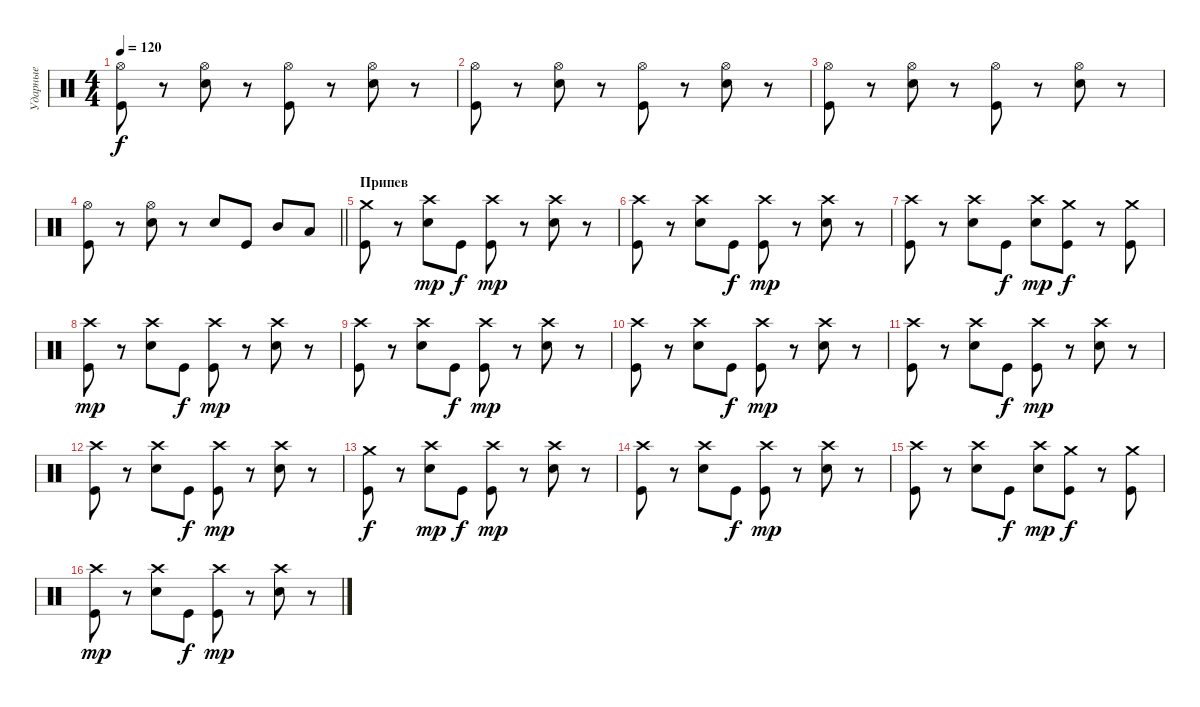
\track ("Ударные" "Ударные") {instrument percussion}
\staff {score}
\articulation defaults
\ts (4 4)
\tempo 120
\clef neutral
\ks c
("Hi-Hat (open)" "Kick (hit)").8{dy f} r.8 ("Hi-Hat (open)" "Electric Snare (hit)").8 r.8 ("Hi-Hat (open)" "Kick (hit)").8 r.8 ("Hi-Hat (open)" "Electric Snare (hit)").8 r.8 |
("Hi-Hat (open)" "Kick (hit)").8 r.8 ("Hi-Hat (open)" "Electric Snare (hit)").8 r.8 ("Hi-Hat (open)" "Kick (hit)").8 r.8 ("Hi-Hat (open)" "Electric Snare (hit)").8 r.8 |
("Hi-Hat (open)" "Kick (hit)").8 r.8 ("Hi-Hat (open)" "Electric Snare (hit)").8 r.8 ("Hi-Hat (open)" "Kick (hit)").8 r.8 ("Hi-Hat (open)" "Electric Snare (hit)").8 r.8 |
\barLineRight lightlight
("Hi-Hat (open)" "Kick (hit)").8 r.8 ("Hi-Hat (open)" "Electric Snare (hit)").8 r.8 "Electric Snare (hit)".8 "Kick (hit)".8 "Mid Tom (hit)".8 "Low Tom (hit)".8 |
\section ("" "Припев")
("Crash medium (hit)" "Kick (hit)").8 r.8 ("Crash high (hit)" "Electric Snare (hit)").8{dy mp} "Kick (hit)".8{dy f} ("Crash high (hit)" "Kick (hit)").8{dy mp} r.8 ("Crash high (hit)" "Electric Snare (hit)").8 r.8 |
("Crash high (hit)" "Kick (hit)").8 r.8 ("Crash high (hit)" "Electric Snare (hit)").8 "Kick (hit)".8{dy f} ("Crash high (hit)" "Kick (hit)").8{dy mp} r.8 ("Crash high (hit)" "Electric Snare (hit)").8 r.8 |
("Crash high (hit)" "Kick (hit)").8 r.8 ("Crash high (hit)" "Electric Snare (hit)").8 "Kick (hit)".8{dy f} ("Crash high (hit)" "Electric Snare (hit)").8{dy mp} ("Crash medium (hit)" "Kick (hit)").8{dy f} r.8 ("Crash medium (hit)" "Kick (hit)").8 |
("Crash high (hit)" "Kick (hit)").8{dy mp} r.8 ("Crash high (hit)" "Electric Snare (hit)").8 "Kick (hit)".8{dy f} ("Crash high (hit)" "Kick (hit)").8{dy mp} r.8 ("Crash high (hit)" "Electric Snare (hit)").8 r.8 |
("Crash high (hit)" "Kick (hit)").8 r.8 ("Crash high (hit)" "Electric Snare (hit)").8 "Kick (hit)".8{dy f} ("Crash high (hit)" "Kick (hit)").8{dy mp} r.8 ("Crash high (hit)" "Electric Snare (hit)").8 r.8 |
("Crash high (hit)" "Kick (hit)").8 r.8 ("Crash high (hit)" "Electric Snare (hit)").8 "Kick (hit)".8{dy f} ("Crash high (hit)" "Kick (hit)").8{dy mp} r.8 ("Crash high (hit)" "Electric Snare (hit)").8 r.8 |
("Crash high (hit)" "Kick (hit)").8 r.8 ("Crash high (hit)" "Electric Snare (hit)").8 "Kick (hit)".8{dy f} ("Crash high (hit)" "Kick (hit)").8{dy mp} r.8 ("Crash high (hit)" "Electric Snare (hit)").8 r.8 |
("Crash high (hit)" "Kick (hit)").8 r.8 ("Crash high (hit)" "Electric Snare (hit)").8 "Kick (hit)".8{dy f} ("Crash high (hit)" "Kick (hit)").8{dy mp} r.8 ("Crash high (hit)" "Electric Snare (hit)").8 r.8 |
("Crash medium (hit)" "Kick (hit)").8{dy f} r.8 ("Crash high (hit)" "Electric Snare (hit)").8{dy mp} "Kick (hit)".8{dy f} ("Crash high (hit)" "Kick (hit)").8{dy mp} r.8 ("Crash high (hit)" "Electric Snare (hit)").8 r.8 |
("Crash high (hit)" "Kick (hit)").8 r.8 ("Crash high (hit)" "Electric Snare (hit)").8 "Kick (hit)".8{dy f} ("Crash high (hit)" "Kick (hit)").8{dy mp} r.8 ("Crash high (hit)" "Electric Snare (hit)").8 r.8 |
("Crash high (hit)" "Kick (hit)").8 r.8 ("Crash high (hit)" "Electric Snare (hit)").8 "Kick (hit)".8{dy f} ("Crash high (hit)" "Electric Snare (hit)").8{dy mp} ("Crash medium (hit)" "Kick (hit)").8{dy f} r.8 ("Crash medium (hit)" "Kick (hit)").8 |
("Crash high (hit)" "Kick (hit)").8{dy mp} r.8 ("Crash high (hit)" "Electric Snare (hit)").8 "Kick (hit)".8{dy f} ("Crash high (hit)" "Kick (hit)").8{dy mp} r.8 ("Crash high (hit)" "Electric Snare (hit)").8 r.8
